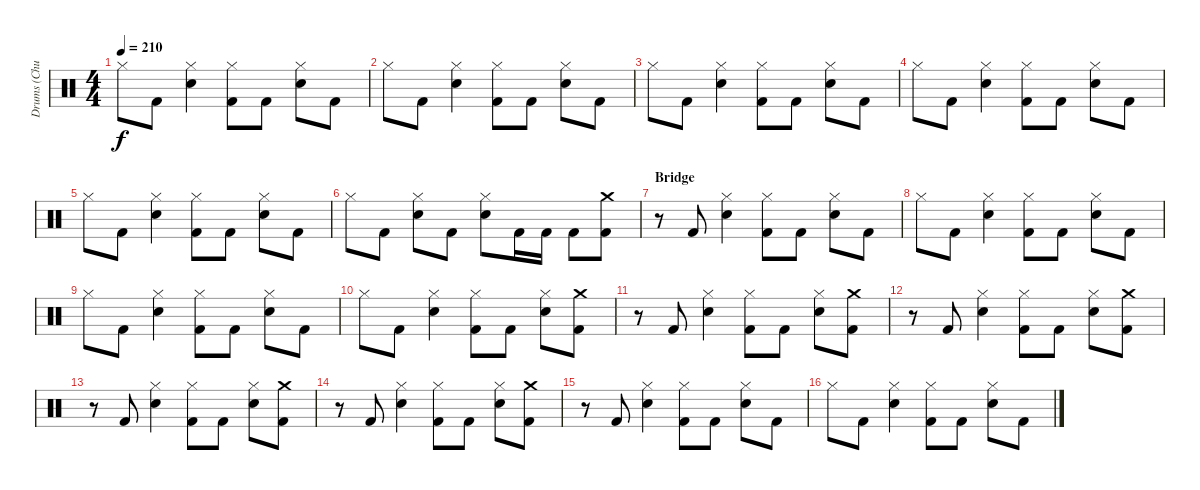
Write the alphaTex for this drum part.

\track ("Drums (Chuck Behler)" "Drums (Chu") {instrument percussion}
\staff {score}
\articulation defaults
\ts (4 4)
\tempo 210
\clef neutral
\ks c "Hi-Hat (closed)".8{dy f} "Kick (hit) 2".8
("Hi-Hat (closed)" "Snare (hit) 2").4 ("Hi-Hat (closed)" "Kick (hit) 2").8 "Kick (hit) 2".8 ("Hi-Hat (closed)" "Snare (hit) 2").8 "Kick (hit) 2".8 |
"Hi-Hat (closed)".8 "Kick (hit) 2".8 ("Hi-Hat (closed)" "Snare (hit) 2").4 ("Hi-Hat (closed)" "Kick (hit) 2").8 "Kick (hit) 2".8 ("Hi-Hat (closed)" "Snare (hit) 2").8 "Kick (hit) 2".8 |
"Hi-Hat (closed)".8 "Kick (hit) 2".8 ("Hi-Hat (closed)" "Snare (hit) 2").4 ("Hi-Hat (closed)" "Kick (hit) 2").8 "Kick (hit) 2".8 ("Hi-Hat (closed)" "Snare (hit) 2").8 "Kick (hit) 2".8 |
"Hi-Hat (closed)".8 "Kick (hit) 2".8 ("Hi-Hat (closed)" "Snare (hit) 2").4 ("Hi-Hat (closed)" "Kick (hit) 2").8 "Kick (hit) 2".8 ("Hi-Hat (closed)" "Snare (hit) 2").8 "Kick (hit) 2".8 |
"Hi-Hat (closed)".8 "Kick (hit) 2".8 ("Hi-Hat (closed)" "Snare (hit) 2").4 ("Hi-Hat (closed)" "Kick (hit) 2").8 "Kick (hit) 2".8 ("Hi-Hat (closed)" "Snare (hit) 2").8 "Kick (hit) 2".8 |
"Hi-Hat (closed)".8 "Kick (hit) 2".8 ("Hi-Hat (closed)" "Snare (hit) 2").8 "Kick (hit) 2".8 ("Hi-Hat (closed)" "Snare (hit) 2").8 "Kick (hit) 2".16 "Kick (hit) 2".16 "Kick (hit) 2".8 ("Crash medium (hit)" "Kick (hit) 2").8 |
\section ("" "Bridge")
r.8 "Kick (hit) 2".8 ("Hi-Hat (closed)" "Snare (hit) 2").4 ("Hi-Hat (closed)" "Kick (hit) 2").8 "Kick (hit) 2".8 ("Hi-Hat (closed)" "Snare (hit) 2").8 "Kick (hit) 2".8 |
"Hi-Hat (closed)".8 "Kick (hit) 2".8 ("Hi-Hat (closed)" "Snare (hit) 2").4 ("Hi-Hat (closed)" "Kick (hit) 2").8 "Kick (hit) 2".8 ("Hi-Hat (closed)" "Snare (hit) 2").8 "Kick (hit) 2".8 |
"Hi-Hat (closed)".8 "Kick (hit) 2".8 ("Hi-Hat (closed)" "Snare (hit) 2").4 ("Hi-Hat (closed)" "Kick (hit) 2").8 "Kick (hit) 2".8 ("Hi-Hat (closed)" "Snare (hit) 2").8 "Kick (hit) 2".8 |
"Hi-Hat (closed)".8 "Kick (hit) 2".8 ("Hi-Hat (closed)" "Snare (hit) 2").4 ("Hi-Hat (closed)" "Kick (hit) 2").8 "Kick (hit) 2".8 ("Hi-Hat (closed)" "Snare (hit) 2").8 ("Crash medium (hit)" "Kick (hit) 2").8 |
r.8 "Kick (hit) 2".8 ("Hi-Hat (closed)" "Snare (hit) 2").4 ("Hi-Hat (closed)" "Kick (hit) 2").8 "Kick (hit) 2".8 ("Hi-Hat (closed)" "Snare (hit) 2").8 ("Crash medium (hit)" "Kick (hit) 2").8 |
r.8 "Kick (hit) 2".8 ("Hi-Hat (closed)" "Snare (hit) 2").4 ("Hi-Hat (closed)" "Kick (hit) 2").8 "Kick (hit) 2".8 ("Hi-Hat (closed)" "Snare (hit) 2").8 ("Crash medium (hit)" "Kick (hit) 2").8 |
r.8 "Kick (hit) 2".8 ("Hi-Hat (closed)" "Snare (hit) 2").4 ("Hi-Hat (closed)" "Kick (hit) 2").8 "Kick (hit) 2".8 ("Hi-Hat (closed)" "Snare (hit) 2").8 ("Crash medium (hit)" "Kick (hit) 2").8 |
r.8 "Kick (hit) 2".8 ("Hi-Hat (closed)" "Snare (hit) 2").4 ("Hi-Hat (closed)" "Kick (hit) 2").8 "Kick (hit) 2".8 ("Hi-Hat (closed)" "Snare (hit) 2").8 ("Crash medium (hit)" "Kick (hit) 2").8 |
r.8 "Kick (hit) 2".8 ("Hi-Hat (closed)" "Snare (hit) 2").4 ("Hi-Hat (closed)" "Kick (hit) 2").8 "Kick (hit) 2".8 ("Hi-Hat (closed)" "Snare (hit) 2").8 "Kick (hit) 2".8 |
"Hi-Hat (closed)".8 "Kick (hit) 2".8 ("Hi-Hat (closed)" "Snare (hit) 2").4 ("Hi-Hat (closed)" "Kick (hit) 2").8 "Kick (hit) 2".8 ("Hi-Hat (closed)" "Snare (hit) 2").8 "Kick (hit) 2".8
